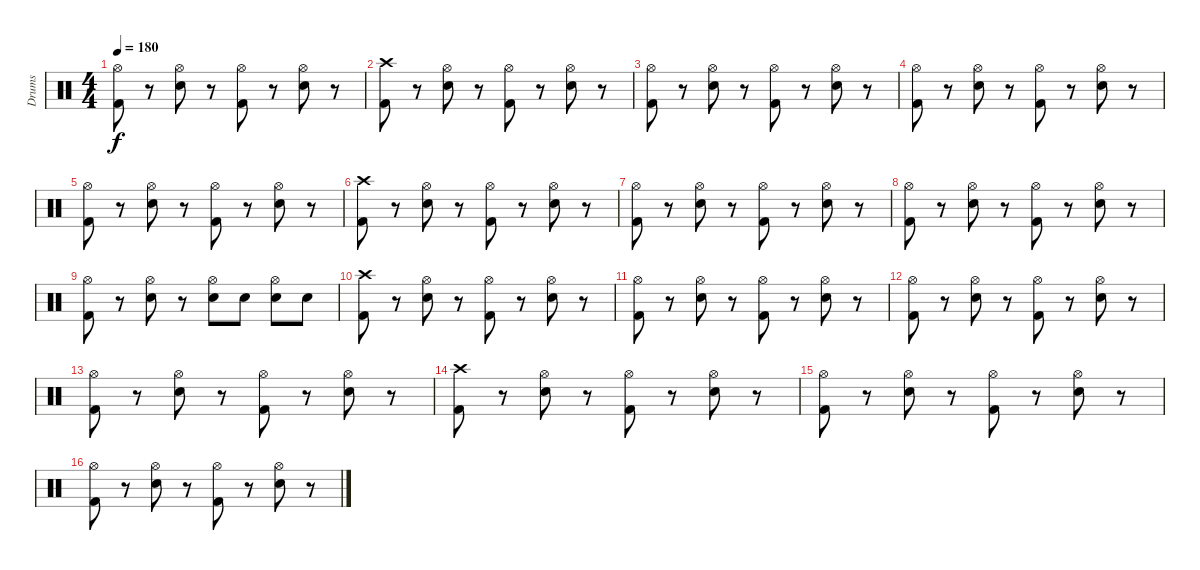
\track ("Drums" "Drums") {instrument percussion}
\staff {score}
\articulation defaults
\ts (4 4)
\tempo 180
\clef neutral
\ks c
("Hi-Hat (open)" "Kick (hit) 2").8{dy f} r.8 ("Hi-Hat (open)" "Snare (hit) 2").8 r.8 ("Hi-Hat (open)" "Kick (hit) 2").8 r.8 ("Hi-Hat (open)" "Snare (hit) 2").8 r.8 |
("Crash high (hit)" "Kick (hit) 2").8 r.8 ("Hi-Hat (open)" "Snare (hit) 2").8 r.8 ("Hi-Hat (open)" "Kick (hit) 2").8 r.8 ("Hi-Hat (open)" "Snare (hit) 2").8 r.8 |
("Hi-Hat (open)" "Kick (hit) 2").8 r.8 ("Hi-Hat (open)" "Snare (hit) 2").8 r.8 ("Hi-Hat (open)" "Kick (hit) 2").8 r.8 ("Hi-Hat (open)" "Snare (hit) 2").8 r.8 |
("Hi-Hat (open)" "Kick (hit) 2").8 r.8 ("Hi-Hat (open)" "Snare (hit) 2").8 r.8 ("Hi-Hat (open)" "Kick (hit) 2").8 r.8 ("Hi-Hat (open)" "Snare (hit) 2").8 r.8 |
("Hi-Hat (open)" "Kick (hit) 2").8 r.8 ("Hi-Hat (open)" "Snare (hit) 2").8 r.8 ("Hi-Hat (open)" "Kick (hit) 2").8 r.8 ("Hi-Hat (open)" "Snare (hit) 2").8 r.8 |
("Crash high (hit)" "Kick (hit) 2").8 r.8 ("Hi-Hat (open)" "Snare (hit) 2").8 r.8 ("Hi-Hat (open)" "Kick (hit) 2").8 r.8 ("Hi-Hat (open)" "Snare (hit) 2").8 r.8 |
("Hi-Hat (open)" "Kick (hit) 2").8 r.8 ("Hi-Hat (open)" "Snare (hit) 2").8 r.8 ("Hi-Hat (open)" "Kick (hit) 2").8 r.8 ("Hi-Hat (open)" "Snare (hit) 2").8 r.8 |
("Hi-Hat (open)" "Kick (hit) 2").8 r.8 ("Hi-Hat (open)" "Snare (hit) 2").8 r.8 ("Hi-Hat (open)" "Kick (hit) 2").8 r.8 ("Hi-Hat (open)" "Snare (hit) 2").8 r.8 |
("Hi-Hat (open)" "Kick (hit) 2").8 r.8 ("Hi-Hat (open)" "Snare (hit) 2").8 r.8 ("Hi-Hat (open)" "Snare (hit) 2").8 "Snare (hit) 2".8 ("Hi-Hat (open)" "Snare (hit) 2").8 "Snare (hit) 2".8 |
("Crash high (hit)" "Kick (hit) 2").8 r.8 ("Hi-Hat (open)" "Snare (hit) 2").8 r.8 ("Hi-Hat (open)" "Kick (hit) 2").8 r.8 ("Hi-Hat (open)" "Snare (hit) 2").8 r.8 |
("Hi-Hat (open)" "Kick (hit) 2").8 r.8 ("Hi-Hat (open)" "Snare (hit) 2").8 r.8 ("Hi-Hat (open)" "Kick (hit) 2").8 r.8 ("Hi-Hat (open)" "Snare (hit) 2").8 r.8 |
("Hi-Hat (open)" "Kick (hit) 2").8 r.8 ("Hi-Hat (open)" "Snare (hit) 2").8 r.8 ("Hi-Hat (open)" "Kick (hit) 2").8 r.8 ("Hi-Hat (open)" "Snare (hit) 2").8 r.8 |
("Hi-Hat (open)" "Kick (hit) 2").8 r.8 ("Hi-Hat (open)" "Snare (hit) 2").8 r.8 ("Hi-Hat (open)" "Kick (hit) 2").8 r.8 ("Hi-Hat (open)" "Snare (hit) 2").8 r.8 |
("Crash high (hit)" "Kick (hit) 2").8 r.8 ("Hi-Hat (open)" "Snare (hit) 2").8 r.8 ("Hi-Hat (open)" "Kick (hit) 2").8 r.8 ("Hi-Hat (open)" "Snare (hit) 2").8 r.8 |
("Hi-Hat (open)" "Kick (hit) 2").8 r.8 ("Hi-Hat (open)" "Snare (hit) 2").8 r.8 ("Hi-Hat (open)" "Kick (hit) 2").8 r.8 ("Hi-Hat (open)" "Snare (hit) 2").8 r.8 |
("Hi-Hat (open)" "Kick (hit) 2").8 r.8 ("Hi-Hat (open)" "Snare (hit) 2").8 r.8 ("Hi-Hat (open)" "Kick (hit) 2").8 r.8 ("Hi-Hat (open)" "Snare (hit) 2").8 r.8
